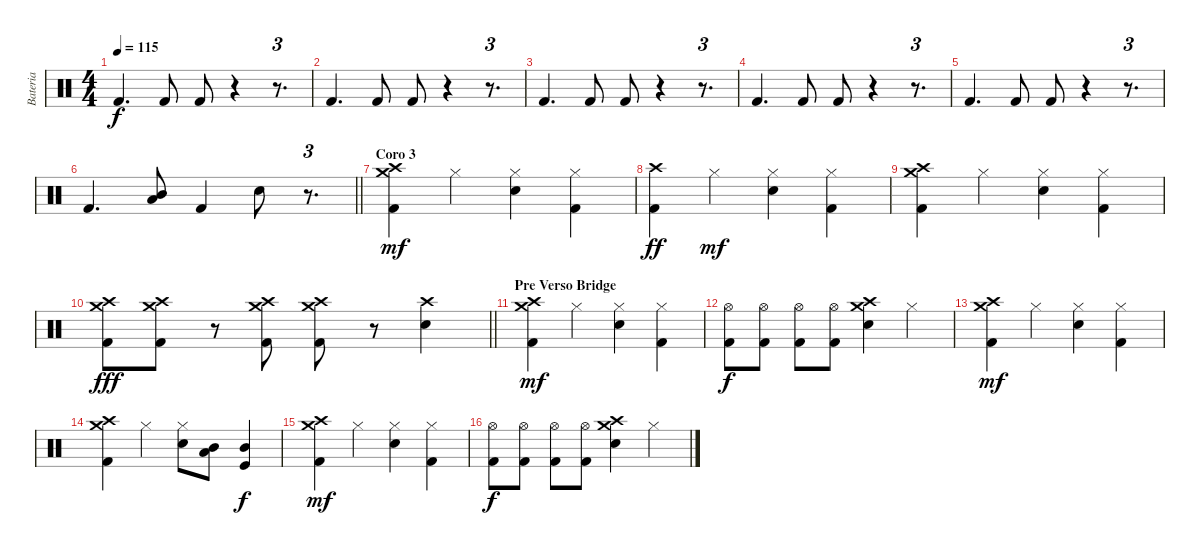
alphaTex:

\track ("Bateria" "Bateria") {instrument percussion}
\staff {score}
\articulation defaults
\ts (4 4)
\tempo 115
\clef neutral
\ks c "Kick (hit) 2".4{d dy f} "Kick (hit) 2".8 "Kick (hit) 2".8
r.4 r.8{d tu (3 2)} |
"Kick (hit) 2".4{d} "Kick (hit) 2".8 "Kick (hit) 2".8 r.4 r.8{d tu (3 2)} |
"Kick (hit) 2".4{d} "Kick (hit) 2".8 "Kick (hit) 2".8 r.4 r.8{d tu (3 2)} |
"Kick (hit) 2".4{d} "Kick (hit) 2".8 "Kick (hit) 2".8 r.4 r.8{d tu (3 2)} |
"Kick (hit) 2".4{d} "Kick (hit) 2".8 "Kick (hit) 2".8 r.4 r.8{d tu (3 2)} |
\barLineRight lightlight "Kick (hit) 2".4{d}
("Mid Tom (hit)" "Low Tom (hit)").8 "Kick (hit) 2".4 "Snare (hit) 2".8 r.8{d tu (3 2)} |
\section ("" "Coro 3")
("Crash medium (hit)" "Kick (hit) 2" "Crash high (hit)").4{dy mf} "Hi-Hat (closed)".4 ("Hi-Hat (closed)" "Snare (hit) 2").4 ("Hi-Hat (closed)" "Kick (hit) 2").4 |
("Crash high (hit)" "Kick (hit) 2").4{dy ff} "Hi-Hat (closed)".4{dy mf} ("Hi-Hat (closed)" "Snare (hit) 2").4 ("Hi-Hat (closed)" "Kick (hit) 2").4 |
("Crash medium (hit)" "Kick (hit) 2" "Crash high (hit)").4 "Hi-Hat (closed)".4 ("Hi-Hat (closed)" "Snare (hit) 2").4 ("Hi-Hat (closed)" "Kick (hit) 2").4 |
\barLineRight lightlight
("Crash high (hit)" "Kick (hit) 2" "Crash medium (hit)").8{dy fff} ("Crash high (hit)" "Kick (hit) 2" "Crash medium (hit)").8 r.8 ("Crash high (hit)" "Kick (hit) 2" "Crash medium (hit)").8 ("Crash high (hit)" "Kick (hit) 2" "Crash medium (hit)").8 r.8 ("Crash high (hit)" "Snare (hit) 2").4 |
\section ("" "Pre Verso Bridge")
("Crash medium (hit)" "Kick (hit) 2" "Crash high (hit)").4{dy mf} "Hi-Hat (closed)".4 ("Hi-Hat (closed)" "Snare (hit) 2").4 ("Hi-Hat (closed)" "Kick (hit) 2").4 |
("Kick (hit) 2" "Hi-Hat (open)").8{dy f} ("Kick (hit) 2" "Hi-Hat (open)").8 ("Kick (hit) 2" "Hi-Hat (open)").8 ("Kick (hit) 2" "Hi-Hat (open)").8 ("Snare (hit) 2" "Crash high (hit)" "Crash medium (hit)").4 "Hi-Hat (closed)".4 |
("Crash medium (hit)" "Kick (hit) 2" "Crash high (hit)").4{dy mf} "Hi-Hat (closed)".4 ("Hi-Hat (closed)" "Snare (hit) 2").4 ("Hi-Hat (closed)" "Kick (hit) 2").4 |
("Crash medium (hit)" "Kick (hit) 2" "Crash high (hit)").4 "Hi-Hat (closed)".4 ("Hi-Hat (closed)" "Snare (hit) 2").8 ("Low Tom (hit)" "Mid Tom (hit)").8 ("Mid Tom (hit)" "Kick (hit)").4{dy f} |
("Crash medium (hit)" "Kick (hit) 2" "Crash high (hit)").4{dy mf} "Hi-Hat (closed)".4 ("Hi-Hat (closed)" "Snare (hit) 2").4 ("Hi-Hat (closed)" "Kick (hit) 2").4 |
("Kick (hit) 2" "Hi-Hat (open)").8{dy f} ("Kick (hit) 2" "Hi-Hat (open)").8 ("Kick (hit) 2" "Hi-Hat (open)").8 ("Kick (hit) 2" "Hi-Hat (open)").8 ("Snare (hit) 2" "Crash high (hit)" "Crash medium (hit)").4 "Hi-Hat (closed)".4
